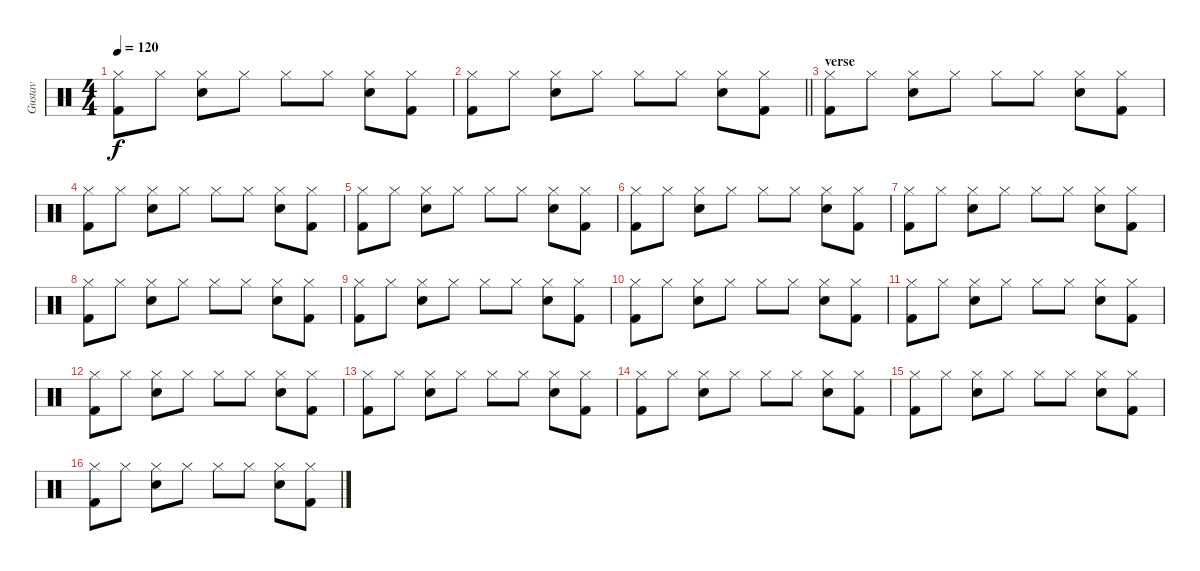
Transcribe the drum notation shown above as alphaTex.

\track ("Gustav" "Gustav") {instrument percussion}
\staff {score}
\articulation defaults
\ts (4 4)
\tempo 120
\clef neutral
\ks c
("Kick (hit) 2" "Hi-Hat (closed)").8{dy f} "Hi-Hat (closed)".8 ("Hi-Hat (closed)" "Snare (hit) 2").8 "Hi-Hat (closed)".8 "Hi-Hat (closed)".8 "Hi-Hat (closed)".8 ("Snare (hit) 2" "Hi-Hat (closed)").8 ("Hi-Hat (closed)" "Kick (hit) 2").8 |
\barLineRight lightlight
("Kick (hit) 2" "Hi-Hat (closed)").8 "Hi-Hat (closed)".8 ("Hi-Hat (closed)" "Snare (hit) 2").8 "Hi-Hat (closed)".8 "Hi-Hat (closed)".8 "Hi-Hat (closed)".8 ("Snare (hit) 2" "Hi-Hat (closed)").8 ("Hi-Hat (closed)" "Kick (hit) 2").8 |
\section ("" "verse")
("Kick (hit) 2" "Hi-Hat (closed)").8 "Hi-Hat (closed)".8 ("Hi-Hat (closed)" "Snare (hit) 2").8 "Hi-Hat (closed)".8 "Hi-Hat (closed)".8 "Hi-Hat (closed)".8 ("Snare (hit) 2" "Hi-Hat (closed)").8 ("Hi-Hat (closed)" "Kick (hit) 2").8 |
("Kick (hit) 2" "Hi-Hat (closed)").8 "Hi-Hat (closed)".8 ("Hi-Hat (closed)" "Snare (hit) 2").8 "Hi-Hat (closed)".8 "Hi-Hat (closed)".8 "Hi-Hat (closed)".8 ("Snare (hit) 2" "Hi-Hat (closed)").8 ("Hi-Hat (closed)" "Kick (hit) 2").8 |
("Kick (hit) 2" "Hi-Hat (closed)").8 "Hi-Hat (closed)".8 ("Hi-Hat (closed)" "Snare (hit) 2").8 "Hi-Hat (closed)".8 "Hi-Hat (closed)".8 "Hi-Hat (closed)".8 ("Snare (hit) 2" "Hi-Hat (closed)").8 ("Hi-Hat (closed)" "Kick (hit) 2").8 |
("Kick (hit) 2" "Hi-Hat (closed)").8 "Hi-Hat (closed)".8 ("Hi-Hat (closed)" "Snare (hit) 2").8 "Hi-Hat (closed)".8 "Hi-Hat (closed)".8 "Hi-Hat (closed)".8 ("Snare (hit) 2" "Hi-Hat (closed)").8 ("Hi-Hat (closed)" "Kick (hit) 2").8 |
("Kick (hit) 2" "Hi-Hat (closed)").8 "Hi-Hat (closed)".8 ("Hi-Hat (closed)" "Snare (hit) 2").8 "Hi-Hat (closed)".8 "Hi-Hat (closed)".8 "Hi-Hat (closed)".8 ("Snare (hit) 2" "Hi-Hat (closed)").8 ("Hi-Hat (closed)" "Kick (hit) 2").8 |
("Kick (hit) 2" "Hi-Hat (closed)").8 "Hi-Hat (closed)".8 ("Hi-Hat (closed)" "Snare (hit) 2").8 "Hi-Hat (closed)".8 "Hi-Hat (closed)".8 "Hi-Hat (closed)".8 ("Snare (hit) 2" "Hi-Hat (closed)").8 ("Hi-Hat (closed)" "Kick (hit) 2").8 |
("Kick (hit) 2" "Hi-Hat (closed)").8 "Hi-Hat (closed)".8 ("Hi-Hat (closed)" "Snare (hit) 2").8 "Hi-Hat (closed)".8 "Hi-Hat (closed)".8 "Hi-Hat (closed)".8 ("Snare (hit) 2" "Hi-Hat (closed)").8 ("Hi-Hat (closed)" "Kick (hit) 2").8 |
("Kick (hit) 2" "Hi-Hat (closed)").8 "Hi-Hat (closed)".8 ("Hi-Hat (closed)" "Snare (hit) 2").8 "Hi-Hat (closed)".8 "Hi-Hat (closed)".8 "Hi-Hat (closed)".8 ("Snare (hit) 2" "Hi-Hat (closed)").8 ("Hi-Hat (closed)" "Kick (hit) 2").8 |
("Kick (hit) 2" "Hi-Hat (closed)").8 "Hi-Hat (closed)".8 ("Hi-Hat (closed)" "Snare (hit) 2").8 "Hi-Hat (closed)".8 "Hi-Hat (closed)".8 "Hi-Hat (closed)".8 ("Snare (hit) 2" "Hi-Hat (closed)").8 ("Hi-Hat (closed)" "Kick (hit) 2").8 |
("Kick (hit) 2" "Hi-Hat (closed)").8 "Hi-Hat (closed)".8 ("Hi-Hat (closed)" "Snare (hit) 2").8 "Hi-Hat (closed)".8 "Hi-Hat (closed)".8 "Hi-Hat (closed)".8 ("Snare (hit) 2" "Hi-Hat (closed)").8 ("Hi-Hat (closed)" "Kick (hit) 2").8 |
("Kick (hit) 2" "Hi-Hat (closed)").8 "Hi-Hat (closed)".8 ("Hi-Hat (closed)" "Snare (hit) 2").8 "Hi-Hat (closed)".8 "Hi-Hat (closed)".8 "Hi-Hat (closed)".8 ("Snare (hit) 2" "Hi-Hat (closed)").8 ("Hi-Hat (closed)" "Kick (hit) 2").8 |
("Kick (hit) 2" "Hi-Hat (closed)").8 "Hi-Hat (closed)".8 ("Hi-Hat (closed)" "Snare (hit) 2").8 "Hi-Hat (closed)".8 "Hi-Hat (closed)".8 "Hi-Hat (closed)".8 ("Snare (hit) 2" "Hi-Hat (closed)").8 ("Hi-Hat (closed)" "Kick (hit) 2").8 |
("Kick (hit) 2" "Hi-Hat (closed)").8 "Hi-Hat (closed)".8 ("Hi-Hat (closed)" "Snare (hit) 2").8 "Hi-Hat (closed)".8 "Hi-Hat (closed)".8 "Hi-Hat (closed)".8 ("Snare (hit) 2" "Hi-Hat (closed)").8 ("Hi-Hat (closed)" "Kick (hit) 2").8 |
("Kick (hit) 2" "Hi-Hat (closed)").8 "Hi-Hat (closed)".8 ("Hi-Hat (closed)" "Snare (hit) 2").8 "Hi-Hat (closed)".8 "Hi-Hat (closed)".8 "Hi-Hat (closed)".8 ("Snare (hit) 2" "Hi-Hat (closed)").8 ("Hi-Hat (closed)" "Kick (hit) 2").8
